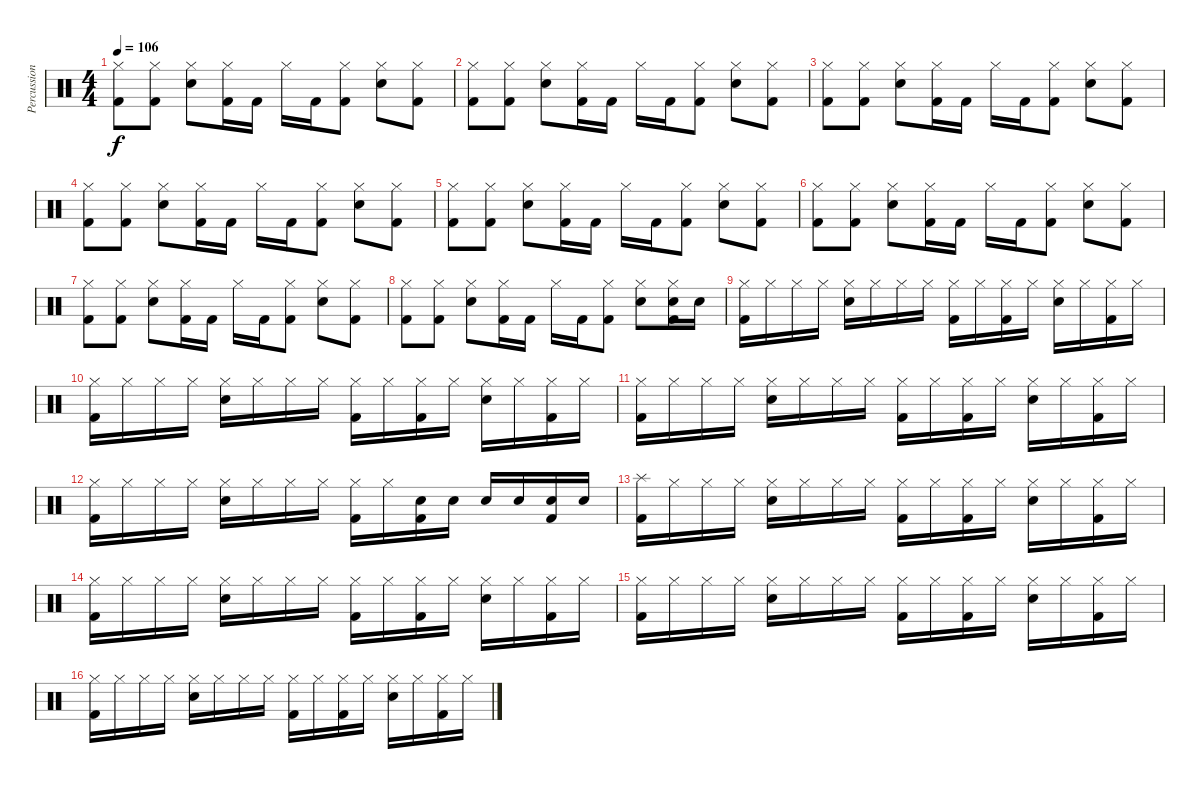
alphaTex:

\track ("Percussion" "Percussion") {instrument percussion}
\staff {score}
\articulation defaults
\ts (4 4)
\tempo 106
\clef neutral
\ks c
("Hi-Hat (closed)" "Kick (hit) 2").8{dy f} ("Hi-Hat (closed)" "Kick (hit) 2").8 ("Hi-Hat (closed)" "Snare (hit) 2").8 ("Hi-Hat (closed)" "Kick (hit) 2").16 "Kick (hit) 2".16 "Hi-Hat (closed)".16 "Kick (hit) 2".16 ("Hi-Hat (closed)" "Kick (hit) 2").8 ("Hi-Hat (closed)" "Snare (hit) 2").8 ("Hi-Hat (closed)" "Kick (hit) 2").8 |
("Hi-Hat (closed)" "Kick (hit) 2").8 ("Hi-Hat (closed)" "Kick (hit) 2").8 ("Hi-Hat (closed)" "Snare (hit) 2").8 ("Hi-Hat (closed)" "Kick (hit) 2").16 "Kick (hit) 2".16 "Hi-Hat (closed)".16 "Kick (hit) 2".16 ("Hi-Hat (closed)" "Kick (hit) 2").8 ("Hi-Hat (closed)" "Snare (hit) 2").8 ("Hi-Hat (closed)" "Kick (hit) 2").8 |
("Hi-Hat (closed)" "Kick (hit) 2").8 ("Hi-Hat (closed)" "Kick (hit) 2").8 ("Hi-Hat (closed)" "Snare (hit) 2").8 ("Hi-Hat (closed)" "Kick (hit) 2").16 "Kick (hit) 2".16 "Hi-Hat (closed)".16 "Kick (hit) 2".16 ("Hi-Hat (closed)" "Kick (hit) 2").8 ("Hi-Hat (closed)" "Snare (hit) 2").8 ("Hi-Hat (closed)" "Kick (hit) 2").8 |
("Hi-Hat (closed)" "Kick (hit) 2").8 ("Hi-Hat (closed)" "Kick (hit) 2").8 ("Hi-Hat (closed)" "Snare (hit) 2").8 ("Hi-Hat (closed)" "Kick (hit) 2").16 "Kick (hit) 2".16 "Hi-Hat (closed)".16 "Kick (hit) 2".16 ("Hi-Hat (closed)" "Kick (hit) 2").8 ("Hi-Hat (closed)" "Snare (hit) 2").8 ("Hi-Hat (closed)" "Kick (hit) 2").8 |
("Hi-Hat (closed)" "Kick (hit) 2").8 ("Hi-Hat (closed)" "Kick (hit) 2").8 ("Hi-Hat (closed)" "Snare (hit) 2").8 ("Hi-Hat (closed)" "Kick (hit) 2").16 "Kick (hit) 2".16 "Hi-Hat (closed)".16 "Kick (hit) 2".16 ("Hi-Hat (closed)" "Kick (hit) 2").8 ("Hi-Hat (closed)" "Snare (hit) 2").8 ("Hi-Hat (closed)" "Kick (hit) 2").8 |
("Hi-Hat (closed)" "Kick (hit) 2").8 ("Hi-Hat (closed)" "Kick (hit) 2").8 ("Hi-Hat (closed)" "Snare (hit) 2").8 ("Hi-Hat (closed)" "Kick (hit) 2").16 "Kick (hit) 2".16 "Hi-Hat (closed)".16 "Kick (hit) 2".16 ("Hi-Hat (closed)" "Kick (hit) 2").8 ("Hi-Hat (closed)" "Snare (hit) 2").8 ("Hi-Hat (closed)" "Kick (hit) 2").8 |
("Hi-Hat (closed)" "Kick (hit) 2").8 ("Hi-Hat (closed)" "Kick (hit) 2").8 ("Hi-Hat (closed)" "Snare (hit) 2").8 ("Hi-Hat (closed)" "Kick (hit) 2").16 "Kick (hit) 2".16 "Hi-Hat (closed)".16 "Kick (hit) 2".16 ("Hi-Hat (closed)" "Kick (hit) 2").8 ("Hi-Hat (closed)" "Snare (hit) 2").8 ("Hi-Hat (closed)" "Kick (hit) 2").8 |
("Hi-Hat (closed)" "Kick (hit) 2").8 ("Hi-Hat (closed)" "Kick (hit) 2").8 ("Hi-Hat (closed)" "Snare (hit) 2").8 ("Hi-Hat (closed)" "Kick (hit) 2").16 "Kick (hit) 2".16 "Hi-Hat (closed)".16 "Kick (hit) 2".16 ("Hi-Hat (closed)" "Kick (hit) 2").8 ("Hi-Hat (closed)" "Snare (hit) 2").8 ("Hi-Hat (closed)" "Snare (hit) 2" "Kick (hit) 2").16 "Snare (hit) 2".16 |
("Hi-Hat (closed)" "Kick (hit) 2").16 "Hi-Hat (closed)".16 "Hi-Hat (closed)".16 "Hi-Hat (closed)".16 ("Hi-Hat (closed)" "Snare (hit) 2").16 "Hi-Hat (closed)".16 "Hi-Hat (closed)".16 "Hi-Hat (closed)".16 ("Hi-Hat (closed)" "Kick (hit) 2").16 "Hi-Hat (closed)".16 ("Hi-Hat (closed)" "Kick (hit) 2").16 "Hi-Hat (closed)".16 ("Hi-Hat (closed)" "Snare (hit) 2").16 "Hi-Hat (closed)".16 ("Hi-Hat (closed)" "Kick (hit) 2").16 "Hi-Hat (closed)".16 |
("Hi-Hat (closed)" "Kick (hit) 2").16 "Hi-Hat (closed)".16 "Hi-Hat (closed)".16 "Hi-Hat (closed)".16 ("Hi-Hat (closed)" "Snare (hit) 2").16 "Hi-Hat (closed)".16 "Hi-Hat (closed)".16 "Hi-Hat (closed)".16 ("Hi-Hat (closed)" "Kick (hit) 2").16 "Hi-Hat (closed)".16 ("Hi-Hat (closed)" "Kick (hit) 2").16 "Hi-Hat (closed)".16 ("Hi-Hat (closed)" "Snare (hit) 2").16 "Hi-Hat (closed)".16 ("Hi-Hat (closed)" "Kick (hit) 2").16 "Hi-Hat (closed)".16 |
("Hi-Hat (closed)" "Kick (hit) 2").16 "Hi-Hat (closed)".16 "Hi-Hat (closed)".16 "Hi-Hat (closed)".16 ("Hi-Hat (closed)" "Snare (hit) 2").16 "Hi-Hat (closed)".16 "Hi-Hat (closed)".16 "Hi-Hat (closed)".16 ("Hi-Hat (closed)" "Kick (hit) 2").16 "Hi-Hat (closed)".16 ("Hi-Hat (closed)" "Kick (hit) 2").16 "Hi-Hat (closed)".16 ("Hi-Hat (closed)" "Snare (hit) 2").16 "Hi-Hat (closed)".16 ("Hi-Hat (closed)" "Kick (hit) 2").16 "Hi-Hat (closed)".16 |
("Hi-Hat (closed)" "Kick (hit) 2").16 "Hi-Hat (closed)".16 "Hi-Hat (closed)".16 "Hi-Hat (closed)".16 ("Hi-Hat (closed)" "Snare (hit) 2").16 "Hi-Hat (closed)".16 "Hi-Hat (closed)".16 "Hi-Hat (closed)".16 ("Hi-Hat (closed)" "Kick (hit) 2").16 "Hi-Hat (closed)".16 ("Snare (hit) 2" "Kick (hit) 2").16 "Snare (hit) 2".16 "Snare (hit) 2".16 "Snare (hit) 2".16 ("Snare (hit) 2" "Kick (hit) 2").16 "Snare (hit) 2".16 |
("Splash (hit)" "Kick (hit) 2").16 "Hi-Hat (closed)".16 "Hi-Hat (closed)".16 "Hi-Hat (closed)".16 ("Hi-Hat (closed)" "Snare (hit) 2").16 "Hi-Hat (closed)".16 "Hi-Hat (closed)".16 "Hi-Hat (closed)".16 ("Hi-Hat (closed)" "Kick (hit) 2").16 "Hi-Hat (closed)".16 ("Hi-Hat (closed)" "Kick (hit) 2").16 "Hi-Hat (closed)".16 ("Hi-Hat (closed)" "Snare (hit) 2").16 "Hi-Hat (closed)".16 ("Hi-Hat (closed)" "Kick (hit) 2").16 "Hi-Hat (closed)".16 |
("Hi-Hat (closed)" "Kick (hit) 2").16 "Hi-Hat (closed)".16 "Hi-Hat (closed)".16 "Hi-Hat (closed)".16 ("Hi-Hat (closed)" "Snare (hit) 2").16 "Hi-Hat (closed)".16 "Hi-Hat (closed)".16 "Hi-Hat (closed)".16 ("Hi-Hat (closed)" "Kick (hit) 2").16 "Hi-Hat (closed)".16 ("Hi-Hat (closed)" "Kick (hit) 2").16 "Hi-Hat (closed)".16 ("Hi-Hat (closed)" "Snare (hit) 2").16 "Hi-Hat (closed)".16 ("Hi-Hat (closed)" "Kick (hit) 2").16 "Hi-Hat (closed)".16 |
("Hi-Hat (closed)" "Kick (hit) 2").16 "Hi-Hat (closed)".16 "Hi-Hat (closed)".16 "Hi-Hat (closed)".16 ("Hi-Hat (closed)" "Snare (hit) 2").16 "Hi-Hat (closed)".16 "Hi-Hat (closed)".16 "Hi-Hat (closed)".16 ("Hi-Hat (closed)" "Kick (hit) 2").16 "Hi-Hat (closed)".16 ("Hi-Hat (closed)" "Kick (hit) 2").16 "Hi-Hat (closed)".16 ("Hi-Hat (closed)" "Snare (hit) 2").16 "Hi-Hat (closed)".16 ("Hi-Hat (closed)" "Kick (hit) 2").16 "Hi-Hat (closed)".16 |
("Hi-Hat (closed)" "Kick (hit) 2").16 "Hi-Hat (closed)".16 "Hi-Hat (closed)".16 "Hi-Hat (closed)".16 ("Hi-Hat (closed)" "Snare (hit) 2").16 "Hi-Hat (closed)".16 "Hi-Hat (closed)".16 "Hi-Hat (closed)".16 ("Hi-Hat (closed)" "Kick (hit) 2").16 "Hi-Hat (closed)".16 ("Hi-Hat (closed)" "Kick (hit) 2").16 "Hi-Hat (closed)".16 ("Hi-Hat (closed)" "Snare (hit) 2").16 "Hi-Hat (closed)".16 ("Hi-Hat (closed)" "Kick (hit) 2").16 "Hi-Hat (closed)".16
